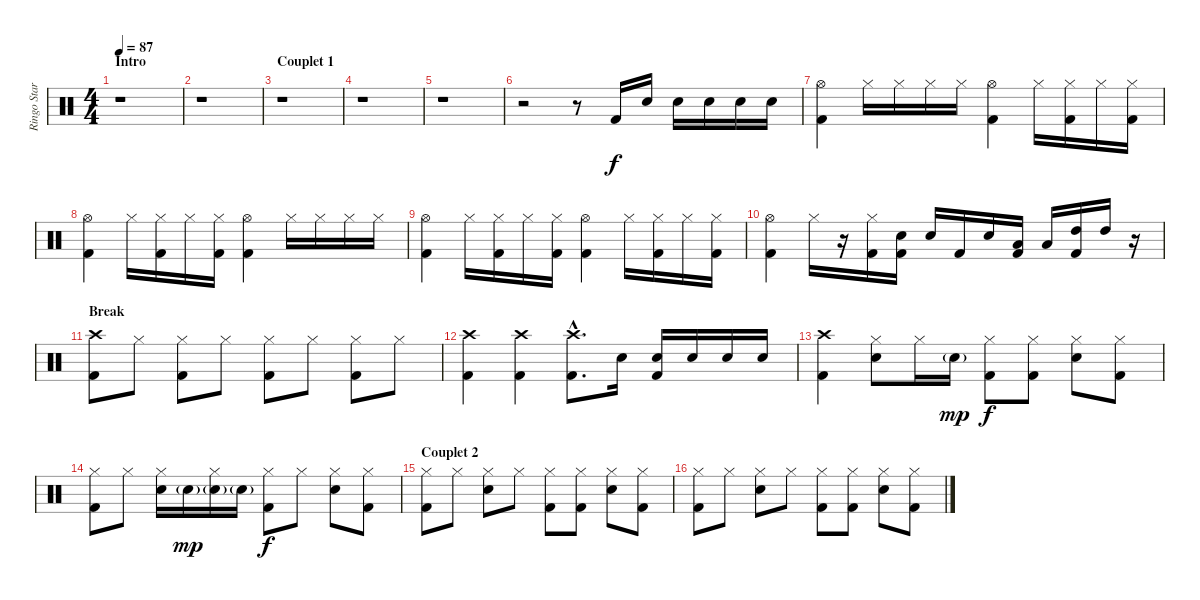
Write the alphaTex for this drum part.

\track ("Ringo Starr (Batterie)" "Ringo Star") {instrument percussion}
\staff {score}
\articulation defaults
\ts (4 4)
\section ("" "Intro")
\tempo 87
\clef neutral
\ks c
r.1{dy f} |
r.1 |
\section ("" "Couplet 1")
r.1 |
r.1 |
r.1 |
r.2 r.8 "Kick (hit) 2".16 "Snare (hit) 2".16 "Snare (hit) 2".16 "Snare (hit) 2".16 "Snare (hit) 2".16 "Snare (hit) 2".16 |
("Hi-Hat (open)" "Kick (hit) 2").4 "Hi-Hat (closed)".16 "Hi-Hat (closed)".16 "Hi-Hat (closed)".16 "Hi-Hat (closed)".16 ("Hi-Hat (open)" "Kick (hit) 2").4 "Hi-Hat (closed)".16 ("Hi-Hat (closed)" "Kick (hit) 2").16 "Hi-Hat (closed)".16 ("Hi-Hat (closed)" "Kick (hit) 2").16 |
("Hi-Hat (open)" "Kick (hit) 2").4 "Hi-Hat (closed)".16 ("Hi-Hat (closed)" "Kick (hit) 2").16 "Hi-Hat (closed)".16 ("Hi-Hat (closed)" "Kick (hit) 2").16 ("Hi-Hat (open)" "Kick (hit) 2").4 "Hi-Hat (closed)".16 "Hi-Hat (closed)".16 "Hi-Hat (closed)".16 "Hi-Hat (closed)".16 |
("Hi-Hat (open)" "Kick (hit) 2").4 "Hi-Hat (closed)".16 ("Hi-Hat (closed)" "Kick (hit) 2").16 "Hi-Hat (closed)".16 ("Hi-Hat (closed)" "Kick (hit) 2").16 ("Hi-Hat (open)" "Kick (hit) 2").4 "Hi-Hat (closed)".16 ("Hi-Hat (closed)" "Kick (hit) 2").16 "Hi-Hat (closed)".16 ("Hi-Hat (closed)" "Kick (hit) 2").16 |
("Hi-Hat (open)" "Kick (hit) 2").4 "Hi-Hat (closed)".16 r.16 ("Hi-Hat (closed)" "Kick (hit) 2").16 ("Snare (hit) 2" "Kick (hit) 2").16 "Snare (hit) 2".16 "Kick (hit) 2".16 "Snare (hit) 2".16 ("Low Tom (hit)" "Kick (hit) 2").16 "Low Tom (hit)".16 ("High Tom (hit)" "Kick (hit) 2").16 "High Tom (hit)".16 r.16 |
\section ("" "Break")
("Crash high (hit)" "Kick (hit) 2").8 "Hi-Hat (closed)".8 ("Hi-Hat (closed)" "Kick (hit) 2").8 "Hi-Hat (closed)".8 ("Hi-Hat (closed)" "Kick (hit) 2").8 "Hi-Hat (closed)".8 ("Hi-Hat (closed)" "Kick (hit) 2").8 "Hi-Hat (closed)".8 |
("Crash high (hit)" "Kick (hit) 2").4 ("Crash high (hit)" "Kick (hit) 2").4 ("Crash high (hit)"{hac} "Kick (hit) 2"{hac}).8{d} "Snare (hit) 2".16 ("Snare (hit) 2" "Kick (hit) 2").16 "Snare (hit) 2".16 "Snare (hit) 2".16 "Snare (hit) 2".16 |
("Crash high (hit)" "Kick (hit) 2").4 ("Hi-Hat (closed)" "Snare (hit) 2").8 "Hi-Hat (closed)".16 "Snare (hit) 2"{g}.16{dy mp} ("Hi-Hat (closed)" "Kick (hit) 2").8{dy f} ("Hi-Hat (closed)" "Kick (hit) 2").8 ("Hi-Hat (closed)" "Snare (hit) 2").8 ("Hi-Hat (closed)" "Kick (hit) 2").8 |
("Hi-Hat (closed)" "Kick (hit) 2").8 "Hi-Hat (closed)".8 ("Hi-Hat (closed)" "Snare (hit) 2").16 "Snare (hit) 2"{g}.16{dy mp} ("Hi-Hat (closed)" "Snare (hit) 2"{g}).16 "Snare (hit) 2"{g}.16 ("Hi-Hat (closed)" "Kick (hit) 2").8{dy f} "Hi-Hat (closed)".8 ("Hi-Hat (closed)" "Snare (hit) 2").8 ("Hi-Hat (closed)" "Kick (hit) 2").8 |
\section ("" "Couplet 2")
("Hi-Hat (closed)" "Kick (hit) 2").8 "Hi-Hat (closed)".8 ("Hi-Hat (closed)" "Snare (hit) 2").8 "Hi-Hat (closed)".8 ("Hi-Hat (closed)" "Kick (hit) 2").8 ("Hi-Hat (closed)" "Kick (hit) 2").8 ("Hi-Hat (closed)" "Snare (hit) 2").8 ("Hi-Hat (closed)" "Kick (hit) 2").8 |
("Hi-Hat (closed)" "Kick (hit) 2").8 "Hi-Hat (closed)".8 ("Hi-Hat (closed)" "Snare (hit) 2").8 "Hi-Hat (closed)".8 ("Hi-Hat (closed)" "Kick (hit) 2").8 ("Hi-Hat (closed)" "Kick (hit) 2").8 ("Hi-Hat (closed)" "Snare (hit) 2").8 ("Hi-Hat (closed)" "Kick (hit) 2").8
